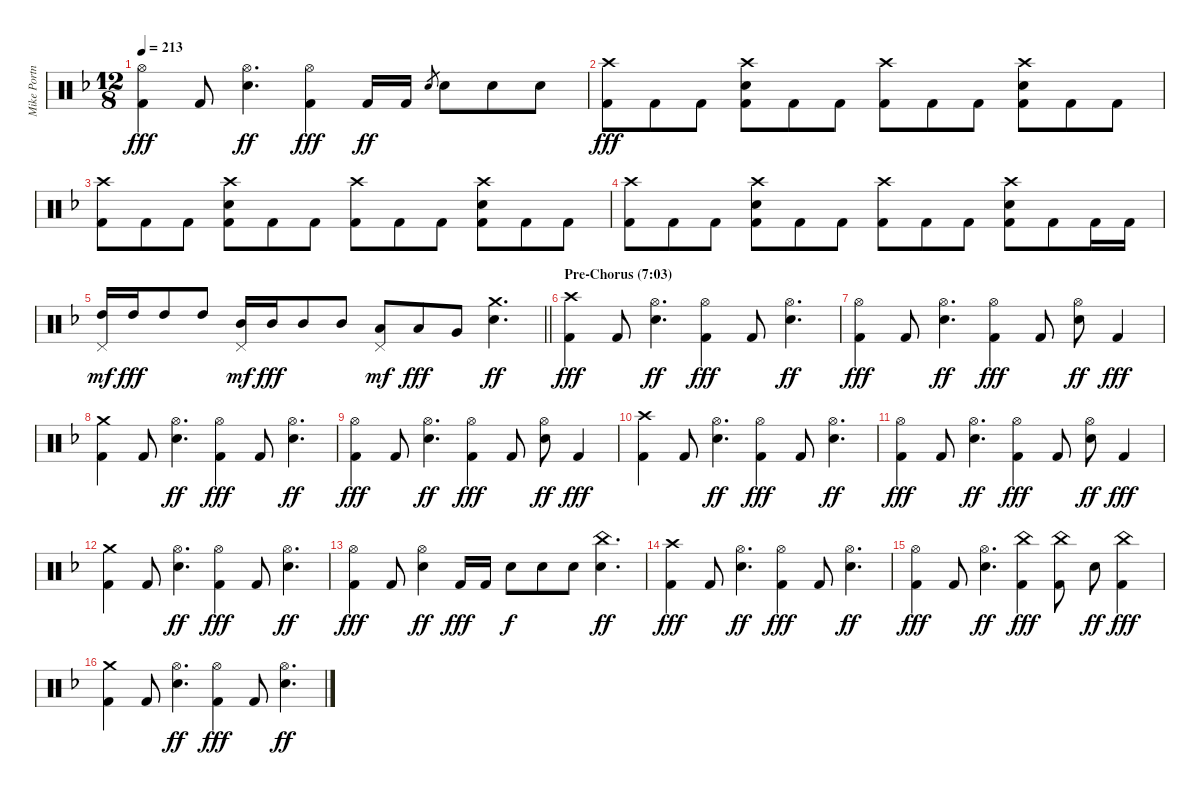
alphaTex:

\track ("Mike Portnoy Drums" "Mike Portn") {instrument percussion}
\staff {score}
\articulation defaults
\ts (12 8)
\tempo 213
\clef neutral
\ks dminor
("Hi-Hat (open)" "Kick (hit) 2").4{dy fff} "Kick (hit) 2".8 ("Hi-Hat (open)" "Electric Snare (hit)").4{d dy ff} ("Hi-Hat (open)" "Kick (hit) 2").4{dy fff} "Kick (hit) 2".16{dy ff} "Kick (hit) 2".16 "Electric Snare (hit)".8{gr} "Electric Snare (hit)".8 "Electric Snare (hit)".8 "Electric Snare (hit)".8 |
("Crash high (hit)" "Kick (hit) 2").8{dy fff} "Kick (hit) 2".8 "Kick (hit) 2".8 ("Crash high (hit)" "Electric Snare (hit)" "Kick (hit) 2").8 "Kick (hit) 2".8 "Kick (hit) 2".8 ("Crash high (hit)" "Kick (hit) 2").8 "Kick (hit) 2".8 "Kick (hit) 2".8 ("Crash high (hit)" "Electric Snare (hit)" "Kick (hit) 2").8 "Kick (hit) 2".8 "Kick (hit) 2".8 |
("Crash high (hit)" "Kick (hit) 2").8 "Kick (hit) 2".8 "Kick (hit) 2".8 ("Crash high (hit)" "Electric Snare (hit)" "Kick (hit) 2").8 "Kick (hit) 2".8 "Kick (hit) 2".8 ("Crash high (hit)" "Kick (hit) 2").8 "Kick (hit) 2".8 "Kick (hit) 2".8 ("Crash high (hit)" "Electric Snare (hit)" "Kick (hit) 2").8 "Kick (hit) 2".8 "Kick (hit) 2".8 |
("Crash high (hit)" "Kick (hit) 2").8 "Kick (hit) 2".8 "Kick (hit) 2".8 ("Crash high (hit)" "Electric Snare (hit)" "Kick (hit) 2").8 "Kick (hit) 2".8 "Kick (hit) 2".8 ("Crash high (hit)" "Kick (hit) 2").8 "Kick (hit) 2".8 "Kick (hit) 2".8 ("Crash high (hit)" "Electric Snare (hit)" "Kick (hit) 2").8 "Kick (hit) 2".8 "Kick (hit) 2".16 "Kick (hit) 2".16 |
\barLineRight lightlight
("High Tom (hit)" "Pedal Hi-Hat (hit)").16{dy mf} "High Tom (hit)".16{dy fff} "High Tom (hit)".8 "High Tom (hit)".8 ("Mid Tom (hit)" "Pedal Hi-Hat (hit)").16{dy mf} "Mid Tom (hit)".16{dy fff} "Mid Tom (hit)".8 "Mid Tom (hit)".8 ("Low Tom (hit)" "Pedal Hi-Hat (hit)").8{dy mf} "Low Tom (hit)".8{dy fff} "Very Low Tom (hit)".8 ("Crash medium (hit)" "Electric Snare (hit)").4{d dy ff} |
\section ("" "Pre-Chorus (7:03)")
("Crash high (hit)" "Kick (hit) 2").4{dy fff} "Kick (hit) 2".8 ("Hi-Hat (open)" "Electric Snare (hit)").4{d dy ff} ("Hi-Hat (open)" "Kick (hit) 2").4{dy fff} "Kick (hit) 2".8 ("Hi-Hat (open)" "Electric Snare (hit)").4{d dy ff} |
("Hi-Hat (open)" "Kick (hit) 2").4{dy fff} "Kick (hit) 2".8 ("Hi-Hat (open)" "Electric Snare (hit)").4{d dy ff} ("Hi-Hat (open)" "Kick (hit) 2").4{dy fff} "Kick (hit) 2".8 ("Hi-Hat (open)" "Electric Snare (hit)").8{dy ff} "Kick (hit) 2".4{dy fff} |
("Crash medium (hit)" "Kick (hit) 2").4 "Kick (hit) 2".8 ("Hi-Hat (open)" "Electric Snare (hit)").4{d dy ff} ("Hi-Hat (open)" "Kick (hit) 2").4{dy fff} "Kick (hit) 2".8 ("Hi-Hat (open)" "Electric Snare (hit)").4{d dy ff} |
("Hi-Hat (open)" "Kick (hit) 2").4{dy fff} "Kick (hit) 2".8 ("Hi-Hat (open)" "Electric Snare (hit)").4{d dy ff} ("Hi-Hat (open)" "Kick (hit) 2").4{dy fff} "Kick (hit) 2".8 ("Hi-Hat (open)" "Electric Snare (hit)").8{dy ff} "Kick (hit) 2".4{dy fff} |
("Crash high (hit)" "Kick (hit) 2").4 "Kick (hit) 2".8 ("Hi-Hat (open)" "Electric Snare (hit)").4{d dy ff} ("Hi-Hat (open)" "Kick (hit) 2").4{dy fff} "Kick (hit) 2".8 ("Hi-Hat (open)" "Electric Snare (hit)").4{d dy ff} |
("Hi-Hat (open)" "Kick (hit) 2").4{dy fff} "Kick (hit) 2".8 ("Hi-Hat (open)" "Electric Snare (hit)").4{d dy ff} ("Hi-Hat (open)" "Kick (hit) 2").4{dy fff} "Kick (hit) 2".8 ("Hi-Hat (open)" "Electric Snare (hit)").8{dy ff} "Kick (hit) 2".4{dy fff} |
("Crash medium (hit)" "Kick (hit) 2").4 "Kick (hit) 2".8 ("Hi-Hat (open)" "Electric Snare (hit)").4{d dy ff} ("Hi-Hat (open)" "Kick (hit) 2").4{dy fff} "Kick (hit) 2".8 ("Hi-Hat (open)" "Electric Snare (hit)").4{d dy ff} |
("Hi-Hat (open)" "Kick (hit) 2").4{dy fff} "Kick (hit) 2".8 ("Hi-Hat (open)" "Electric Snare (hit)").4{dy ff} "Kick (hit) 2".16{dy fff} "Kick (hit) 2".16 "Electric Snare (hit)".8{dy f} "Electric Snare (hit)".8 "Electric Snare (hit)".8 ("China (hit)" "Electric Snare (hit)").4{d dy ff} |
("Crash high (hit)" "Kick (hit) 2").4{dy fff} "Kick (hit) 2".8 ("Hi-Hat (open)" "Electric Snare (hit)").4{d dy ff} ("Hi-Hat (open)" "Kick (hit) 2").4{dy fff} "Kick (hit) 2".8 ("Hi-Hat (open)" "Electric Snare (hit)").4{d dy ff} |
("Hi-Hat (open)" "Kick (hit) 2").4{dy fff} "Kick (hit) 2".8 ("Hi-Hat (open)" "Electric Snare (hit)").4{d dy ff} ("China (hit)" "Kick (hit) 2").4{dy fff} ("China (hit)" "Kick (hit) 2").8 "Electric Snare (hit)".8{dy ff} ("China (hit)" "Kick (hit) 2").4{dy fff} |
("Crash medium (hit)" "Kick (hit) 2").4 "Kick (hit) 2".8 ("Hi-Hat (open)" "Electric Snare (hit)").4{d dy ff} ("Hi-Hat (open)" "Kick (hit) 2").4{dy fff} "Kick (hit) 2".8 ("Hi-Hat (open)" "Electric Snare (hit)").4{d dy ff}
